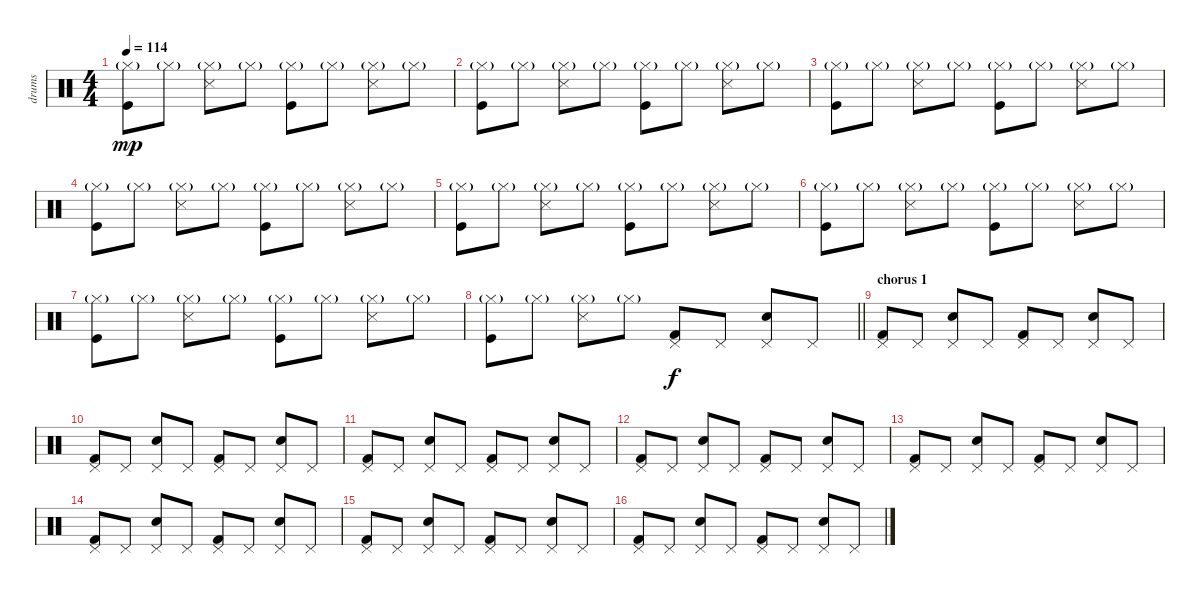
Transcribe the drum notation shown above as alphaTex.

\track ("drums" "drums") {instrument percussion}
\staff {score}
\articulation defaults
\ts (4 4)
\tempo 114
\clef neutral
\ks c
("Kick (hit)" "Hi-Hat (closed)"{g}).8{dy mp} "Hi-Hat (closed)"{g}.8 ("Snare (side stick) 3" "Hi-Hat (closed)"{g}).8 "Hi-Hat (closed)"{g}.8 ("Kick (hit)" "Hi-Hat (closed)"{g}).8 "Hi-Hat (closed)"{g}.8 ("Snare (side stick) 3" "Hi-Hat (closed)"{g}).8 "Hi-Hat (closed)"{g}.8 |
("Kick (hit)" "Hi-Hat (closed)"{g}).8 "Hi-Hat (closed)"{g}.8 ("Snare (side stick) 3" "Hi-Hat (closed)"{g}).8 "Hi-Hat (closed)"{g}.8 ("Kick (hit)" "Hi-Hat (closed)"{g}).8 "Hi-Hat (closed)"{g}.8 ("Snare (side stick) 3" "Hi-Hat (closed)"{g}).8 "Hi-Hat (closed)"{g}.8 |
("Kick (hit)" "Hi-Hat (closed)"{g}).8 "Hi-Hat (closed)"{g}.8 ("Snare (side stick) 3" "Hi-Hat (closed)"{g}).8 "Hi-Hat (closed)"{g}.8 ("Kick (hit)" "Hi-Hat (closed)"{g}).8 "Hi-Hat (closed)"{g}.8 ("Snare (side stick) 3" "Hi-Hat (closed)"{g}).8 "Hi-Hat (closed)"{g}.8 |
("Kick (hit)" "Hi-Hat (closed)"{g}).8 "Hi-Hat (closed)"{g}.8 ("Snare (side stick) 3" "Hi-Hat (closed)"{g}).8 "Hi-Hat (closed)"{g}.8 ("Kick (hit)" "Hi-Hat (closed)"{g}).8 "Hi-Hat (closed)"{g}.8 ("Snare (side stick) 3" "Hi-Hat (closed)"{g}).8 "Hi-Hat (closed)"{g}.8 |
("Kick (hit)" "Hi-Hat (closed)"{g}).8 "Hi-Hat (closed)"{g}.8 ("Snare (side stick) 3" "Hi-Hat (closed)"{g}).8 "Hi-Hat (closed)"{g}.8 ("Kick (hit)" "Hi-Hat (closed)"{g}).8 "Hi-Hat (closed)"{g}.8 ("Snare (side stick) 3" "Hi-Hat (closed)"{g}).8 "Hi-Hat (closed)"{g}.8 |
("Kick (hit)" "Hi-Hat (closed)"{g}).8 "Hi-Hat (closed)"{g}.8 ("Snare (side stick) 3" "Hi-Hat (closed)"{g}).8 "Hi-Hat (closed)"{g}.8 ("Kick (hit)" "Hi-Hat (closed)"{g}).8 "Hi-Hat (closed)"{g}.8 ("Snare (side stick) 3" "Hi-Hat (closed)"{g}).8 "Hi-Hat (closed)"{g}.8 |
("Kick (hit)" "Hi-Hat (closed)"{g}).8 "Hi-Hat (closed)"{g}.8 ("Snare (side stick) 3" "Hi-Hat (closed)"{g}).8 "Hi-Hat (closed)"{g}.8 ("Kick (hit)" "Hi-Hat (closed)"{g}).8 "Hi-Hat (closed)"{g}.8 ("Snare (side stick) 3" "Hi-Hat (closed)"{g}).8 "Hi-Hat (closed)"{g}.8 |
\barLineRight lightlight
("Kick (hit)" "Hi-Hat (closed)"{g}).8 "Hi-Hat (closed)"{g}.8 ("Snare (side stick) 3" "Hi-Hat (closed)"{g}).8 "Hi-Hat (closed)"{g}.8 ("Kick (hit) 2" "Pedal Hi-Hat (hit)").8{dy f} "Pedal Hi-Hat (hit)".8 ("Electric Snare (hit)" "Pedal Hi-Hat (hit)").8{volume 14} "Pedal Hi-Hat (hit)".8 |
\section ("" "chorus 1")
("Kick (hit) 2" "Pedal Hi-Hat (hit)").8 "Pedal Hi-Hat (hit)".8 ("Electric Snare (hit)" "Pedal Hi-Hat (hit)").8 "Pedal Hi-Hat (hit)".8 ("Kick (hit) 2" "Pedal Hi-Hat (hit)").8 "Pedal Hi-Hat (hit)".8 ("Electric Snare (hit)" "Pedal Hi-Hat (hit)").8 "Pedal Hi-Hat (hit)".8 |
("Kick (hit) 2" "Pedal Hi-Hat (hit)").8 "Pedal Hi-Hat (hit)".8 ("Electric Snare (hit)" "Pedal Hi-Hat (hit)").8 "Pedal Hi-Hat (hit)".8 ("Kick (hit) 2" "Pedal Hi-Hat (hit)").8 "Pedal Hi-Hat (hit)".8 ("Electric Snare (hit)" "Pedal Hi-Hat (hit)").8 "Pedal Hi-Hat (hit)".8 |
("Kick (hit) 2" "Pedal Hi-Hat (hit)").8 "Pedal Hi-Hat (hit)".8 ("Electric Snare (hit)" "Pedal Hi-Hat (hit)").8 "Pedal Hi-Hat (hit)".8 ("Kick (hit) 2" "Pedal Hi-Hat (hit)").8 "Pedal Hi-Hat (hit)".8 ("Electric Snare (hit)" "Pedal Hi-Hat (hit)").8 "Pedal Hi-Hat (hit)".8 |
("Kick (hit) 2" "Pedal Hi-Hat (hit)").8 "Pedal Hi-Hat (hit)".8 ("Electric Snare (hit)" "Pedal Hi-Hat (hit)").8 "Pedal Hi-Hat (hit)".8 ("Kick (hit) 2" "Pedal Hi-Hat (hit)").8 "Pedal Hi-Hat (hit)".8 ("Electric Snare (hit)" "Pedal Hi-Hat (hit)").8 "Pedal Hi-Hat (hit)".8 |
("Kick (hit) 2" "Pedal Hi-Hat (hit)").8 "Pedal Hi-Hat (hit)".8 ("Electric Snare (hit)" "Pedal Hi-Hat (hit)").8 "Pedal Hi-Hat (hit)".8 ("Kick (hit) 2" "Pedal Hi-Hat (hit)").8 "Pedal Hi-Hat (hit)".8 ("Electric Snare (hit)" "Pedal Hi-Hat (hit)").8 "Pedal Hi-Hat (hit)".8 |
("Kick (hit) 2" "Pedal Hi-Hat (hit)").8 "Pedal Hi-Hat (hit)".8 ("Electric Snare (hit)" "Pedal Hi-Hat (hit)").8 "Pedal Hi-Hat (hit)".8 ("Kick (hit) 2" "Pedal Hi-Hat (hit)").8 "Pedal Hi-Hat (hit)".8 ("Electric Snare (hit)" "Pedal Hi-Hat (hit)").8 "Pedal Hi-Hat (hit)".8 |
("Kick (hit) 2" "Pedal Hi-Hat (hit)").8 "Pedal Hi-Hat (hit)".8 ("Electric Snare (hit)" "Pedal Hi-Hat (hit)").8 "Pedal Hi-Hat (hit)".8 ("Kick (hit) 2" "Pedal Hi-Hat (hit)").8 "Pedal Hi-Hat (hit)".8 ("Electric Snare (hit)" "Pedal Hi-Hat (hit)").8 "Pedal Hi-Hat (hit)".8 |
("Kick (hit) 2" "Pedal Hi-Hat (hit)").8 "Pedal Hi-Hat (hit)".8 ("Electric Snare (hit)" "Pedal Hi-Hat (hit)").8 "Pedal Hi-Hat (hit)".8 ("Kick (hit) 2" "Pedal Hi-Hat (hit)").8 "Pedal Hi-Hat (hit)".8 ("Electric Snare (hit)" "Pedal Hi-Hat (hit)").8 "Pedal Hi-Hat (hit)".8
